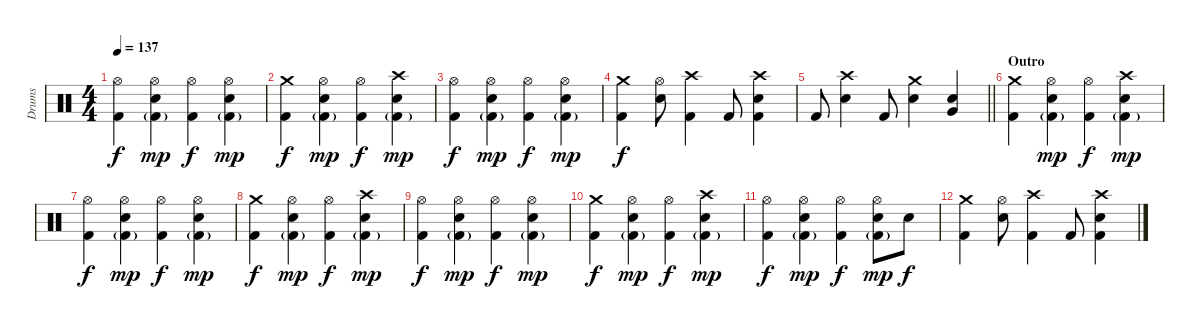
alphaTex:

\track ("Drums" "Drums") {instrument percussion}
\staff {score}
\articulation defaults
\ts (4 4)
\tempo 137
\clef neutral
\ks c
("Hi-Hat (open)" "Kick (hit) 2").4{dy f} ("Hi-Hat (open)" "Electric Snare (hit)" "Kick (hit) 2"{g}).4{dy mp} ("Hi-Hat (open)" "Kick (hit) 2").4{dy f} ("Hi-Hat (open)" "Electric Snare (hit)" "Kick (hit) 2"{g}).4{dy mp} |
("Crash medium (hit)" "Kick (hit) 2").4{dy f} ("Hi-Hat (open)" "Electric Snare (hit)" "Kick (hit) 2"{g}).4{dy mp} ("Hi-Hat (open)" "Kick (hit) 2").4{dy f} ("Crash high (hit)" "Electric Snare (hit)" "Kick (hit) 2"{g}).4{dy mp} |
("Hi-Hat (open)" "Kick (hit) 2").4{dy f} ("Hi-Hat (open)" "Electric Snare (hit)" "Kick (hit) 2"{g}).4{dy mp} ("Hi-Hat (open)" "Kick (hit) 2").4{dy f} ("Hi-Hat (open)" "Electric Snare (hit)" "Kick (hit) 2"{g}).4{dy mp} |
("Crash medium (hit)" "Kick (hit) 2").4{dy f} ("Hi-Hat (open)" "Electric Snare (hit)").8 ("Crash high (hit)" "Kick (hit) 2").4 "Kick (hit) 2".8 ("Crash high (hit)" "Electric Snare (hit)" "Kick (hit) 2").4 |
\barLineRight lightlight "Kick (hit) 2".8
("Crash high (hit)" "Electric Snare (hit)").4 "Kick (hit) 2".8 ("Crash medium (hit)" "Electric Snare (hit)").4 ("Very Low Tom (hit)" "Electric Snare (hit)").4 |
\section ("" "Outro")
("Crash medium (hit)" "Kick (hit) 2").4 ("Hi-Hat (open)" "Electric Snare (hit)" "Kick (hit) 2"{g}).4{dy mp} ("Hi-Hat (open)" "Kick (hit) 2").4{dy f} ("Crash high (hit)" "Electric Snare (hit)" "Kick (hit) 2"{g}).4{dy mp} |
("Hi-Hat (open)" "Kick (hit) 2").4{dy f} ("Hi-Hat (open)" "Electric Snare (hit)" "Kick (hit) 2"{g}).4{dy mp} ("Hi-Hat (open)" "Kick (hit) 2").4{dy f} ("Hi-Hat (open)" "Electric Snare (hit)" "Kick (hit) 2"{g}).4{dy mp} |
("Crash medium (hit)" "Kick (hit) 2").4{dy f} ("Hi-Hat (open)" "Electric Snare (hit)" "Kick (hit) 2"{g}).4{dy mp} ("Hi-Hat (open)" "Kick (hit) 2").4{dy f} ("Crash high (hit)" "Electric Snare (hit)" "Kick (hit) 2"{g}).4{dy mp} |
("Hi-Hat (open)" "Kick (hit) 2").4{dy f} ("Hi-Hat (open)" "Electric Snare (hit)" "Kick (hit) 2"{g}).4{dy mp} ("Hi-Hat (open)" "Kick (hit) 2").4{dy f} ("Hi-Hat (open)" "Electric Snare (hit)" "Kick (hit) 2"{g}).4{dy mp} |
("Crash medium (hit)" "Kick (hit) 2").4{dy f} ("Hi-Hat (open)" "Electric Snare (hit)" "Kick (hit) 2"{g}).4{dy mp} ("Hi-Hat (open)" "Kick (hit) 2").4{dy f} ("Crash high (hit)" "Electric Snare (hit)" "Kick (hit) 2"{g}).4{dy mp} |
("Hi-Hat (open)" "Kick (hit) 2").4{dy f} ("Hi-Hat (open)" "Electric Snare (hit)" "Kick (hit) 2"{g}).4{dy mp} ("Hi-Hat (open)" "Kick (hit) 2").4{dy f} ("Hi-Hat (open)" "Electric Snare (hit)" "Kick (hit) 2"{g}).8{dy mp} "Electric Snare (hit)".8{dy f} |
("Crash medium (hit)" "Kick (hit) 2").4 ("Hi-Hat (open)" "Electric Snare (hit)").8 ("Crash high (hit)" "Kick (hit) 2").4 "Kick (hit) 2".8 ("Crash high (hit)" "Electric Snare (hit)" "Kick (hit) 2").4
